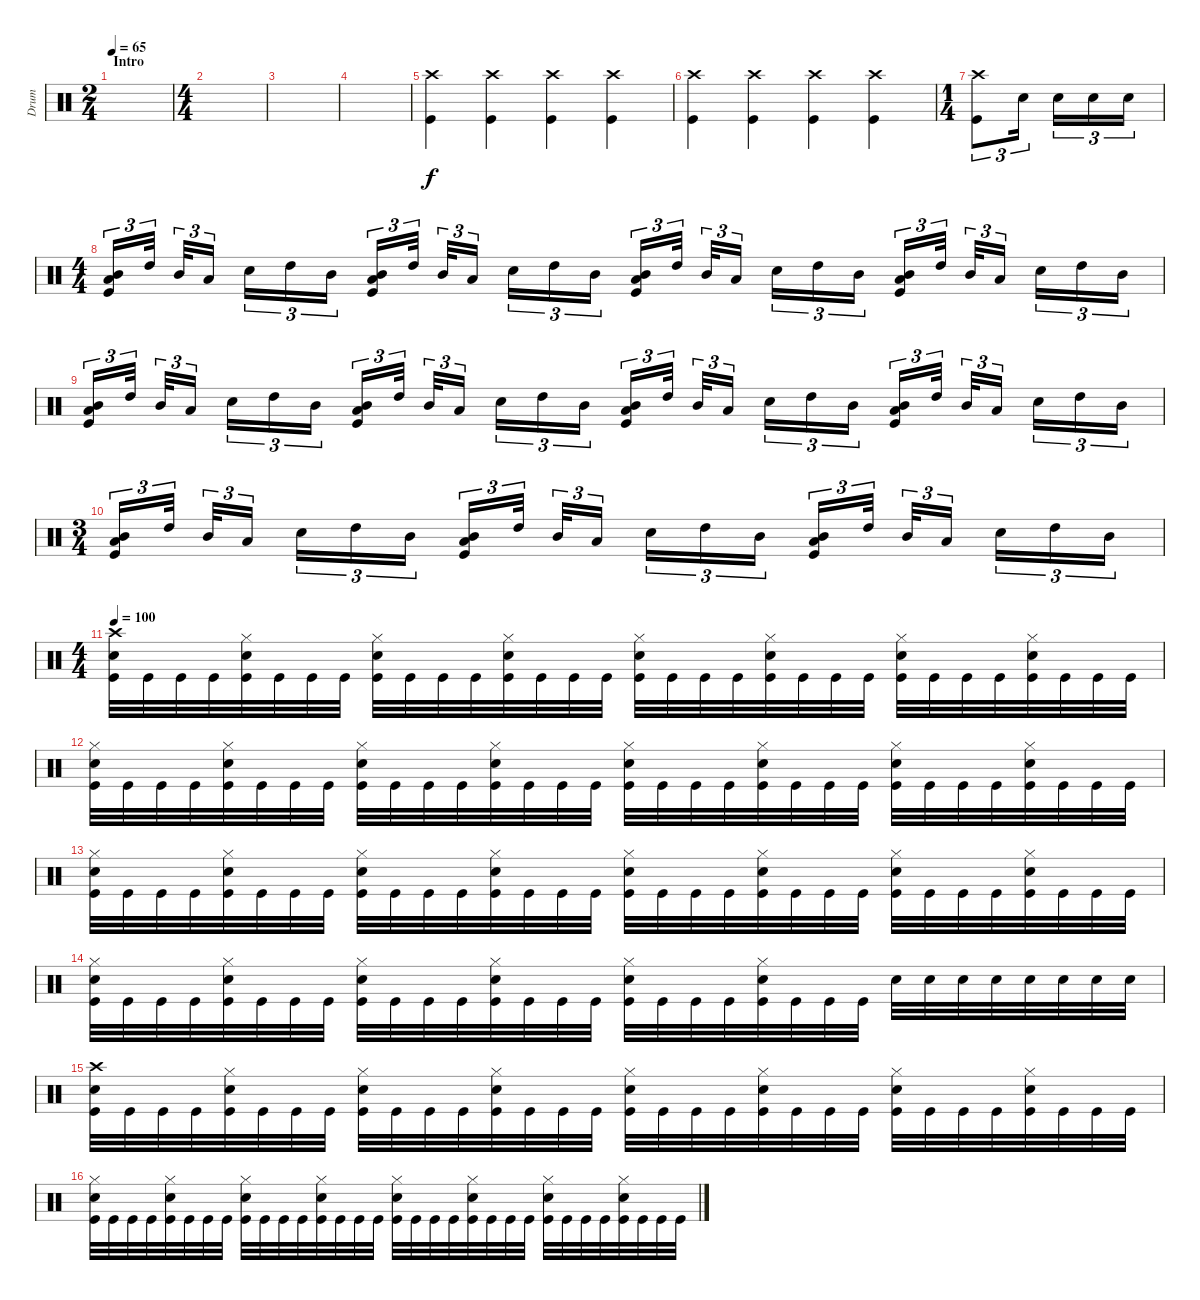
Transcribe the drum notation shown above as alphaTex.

\track ("Drum" "Drum") {instrument percussion}
\staff {score}
\articulation defaults
\ts (2 4)
\section ("" "Intro")
\tempo 65
\clef neutral
\ks c
|
\ts (4 4)
|
|
|
("Kick (hit)" "Crash high (hit)").4 ("Kick (hit)" "Crash high (hit)").4 ("Kick (hit)" "Crash high (hit)").4 ("Kick (hit)" "Crash high (hit)").4 |
("Kick (hit)" "Crash high (hit)").4 ("Kick (hit)" "Crash high (hit)").4 ("Kick (hit)" "Crash high (hit)").4 ("Kick (hit)" "Crash high (hit)").4 |
\ts (1 4)
("Kick (hit)" "Crash high (hit)").8{tu (3 2)} "Snare (hit) 2".16{tu (3 2)} "Snare (hit) 2".16{tu (3 2)} "Snare (hit) 2".16{tu (3 2)} "Snare (hit) 2".16{tu (3 2)} |
\ts (4 4)
("Kick (hit)" "Mid Tom (hit)" "Low Tom (hit)").16{tu (3 2)} "High Tom (hit)".32{tu (3 2)} "Mid Tom (hit)".32{tu (3 2)} "Low Tom (hit)".16{tu (3 2)} "Snare (hit) 2".16{tu (3 2)} "High Tom (hit)".16{tu (3 2)} "Mid Tom (hit)".16{tu (3 2)} ("Kick (hit)" "Mid Tom (hit)" "Low Tom (hit)").16{tu (3 2)} "High Tom (hit)".32{tu (3 2)} "Mid Tom (hit)".32{tu (3 2)} "Low Tom (hit)".16{tu (3 2)} "Snare (hit) 2".16{tu (3 2)} "High Tom (hit)".16{tu (3 2)} "Mid Tom (hit)".16{tu (3 2)} ("Kick (hit)" "Mid Tom (hit)" "Low Tom (hit)").16{tu (3 2)} "High Tom (hit)".32{tu (3 2)} "Mid Tom (hit)".32{tu (3 2)} "Low Tom (hit)".16{tu (3 2)} "Snare (hit) 2".16{tu (3 2)} "High Tom (hit)".16{tu (3 2)} "Mid Tom (hit)".16{tu (3 2)} ("Kick (hit)" "Mid Tom (hit)" "Low Tom (hit)").16{tu (3 2)} "High Tom (hit)".32{tu (3 2)} "Mid Tom (hit)".32{tu (3 2)} "Low Tom (hit)".16{tu (3 2)} "Snare (hit) 2".16{tu (3 2)} "High Tom (hit)".16{tu (3 2)} "Mid Tom (hit)".16{tu (3 2)} |
("Kick (hit)" "Mid Tom (hit)" "Low Tom (hit)").16{tu (3 2)} "High Tom (hit)".32{tu (3 2)} "Mid Tom (hit)".32{tu (3 2)} "Low Tom (hit)".16{tu (3 2)} "Snare (hit) 2".16{tu (3 2)} "High Tom (hit)".16{tu (3 2)} "Mid Tom (hit)".16{tu (3 2)} ("Kick (hit)" "Mid Tom (hit)" "Low Tom (hit)").16{tu (3 2)} "High Tom (hit)".32{tu (3 2)} "Mid Tom (hit)".32{tu (3 2)} "Low Tom (hit)".16{tu (3 2)} "Snare (hit) 2".16{tu (3 2)} "High Tom (hit)".16{tu (3 2)} "Mid Tom (hit)".16{tu (3 2)} ("Kick (hit)" "Mid Tom (hit)" "Low Tom (hit)").16{tu (3 2)} "High Tom (hit)".32{tu (3 2)} "Mid Tom (hit)".32{tu (3 2)} "Low Tom (hit)".16{tu (3 2)} "Snare (hit) 2".16{tu (3 2)} "High Tom (hit)".16{tu (3 2)} "Mid Tom (hit)".16{tu (3 2)} ("Kick (hit)" "Mid Tom (hit)" "Low Tom (hit)").16{tu (3 2)} "High Tom (hit)".32{tu (3 2)} "Mid Tom (hit)".32{tu (3 2)} "Low Tom (hit)".16{tu (3 2)} "Snare (hit) 2".16{tu (3 2)} "High Tom (hit)".16{tu (3 2)} "Mid Tom (hit)".16{tu (3 2)} |
\ts (3 4)
("Kick (hit)" "Mid Tom (hit)" "Low Tom (hit)").16{tu (3 2)} "High Tom (hit)".32{tu (3 2)} "Mid Tom (hit)".32{tu (3 2)} "Low Tom (hit)".16{tu (3 2)} "Snare (hit) 2".16{tu (3 2)} "High Tom (hit)".16{tu (3 2)} "Mid Tom (hit)".16{tu (3 2)} ("Kick (hit)" "Mid Tom (hit)" "Low Tom (hit)").16{tu (3 2)} "High Tom (hit)".32{tu (3 2)} "Mid Tom (hit)".32{tu (3 2)} "Low Tom (hit)".16{tu (3 2)} "Snare (hit) 2".16{tu (3 2)} "High Tom (hit)".16{tu (3 2)} "Mid Tom (hit)".16{tu (3 2)} ("Kick (hit)" "Mid Tom (hit)" "Low Tom (hit)").16{tu (3 2)} "High Tom (hit)".32{tu (3 2)} "Mid Tom (hit)".32{tu (3 2)} "Low Tom (hit)".16{tu (3 2)} "Snare (hit) 2".16{tu (3 2)} "High Tom (hit)".16{tu (3 2)} "Mid Tom (hit)".16{tu (3 2)} |
\ts (4 4)
\tempo 100
("Kick (hit)" "Snare (hit) 2" "Crash high (hit)").32 "Kick (hit)".32 "Kick (hit)".32 "Kick (hit)".32 ("Kick (hit)" "Snare (hit) 2" "Hi-Hat (closed)").32 "Kick (hit)".32 "Kick (hit)".32 "Kick (hit)".32 ("Snare (hit) 2" "Kick (hit)" "Hi-Hat (closed)").32 "Kick (hit)".32 "Kick (hit)".32 "Kick (hit)".32 ("Kick (hit)" "Hi-Hat (closed)" "Snare (hit) 2").32 "Kick (hit)".32 "Kick (hit)".32 "Kick (hit)".32 ("Kick (hit)" "Snare (hit) 2" "Hi-Hat (closed)").32 "Kick (hit)".32 "Kick (hit)".32 "Kick (hit)".32 ("Snare (hit) 2" "Kick (hit)" "Hi-Hat (closed)").32 "Kick (hit)".32 "Kick (hit)".32 "Kick (hit)".32 ("Kick (hit)" "Snare (hit) 2" "Hi-Hat (closed)").32 "Kick (hit)".32 "Kick (hit)".32 "Kick (hit)".32 ("Kick (hit)" "Snare (hit) 2" "Hi-Hat (closed)").32 "Kick (hit)".32 "Kick (hit)".32 "Kick (hit)".32 |
("Kick (hit)" "Snare (hit) 2" "Hi-Hat (closed)").32 "Kick (hit)".32 "Kick (hit)".32 "Kick (hit)".32 ("Kick (hit)" "Snare (hit) 2" "Hi-Hat (closed)").32 "Kick (hit)".32 "Kick (hit)".32 "Kick (hit)".32 ("Snare (hit) 2" "Kick (hit)" "Hi-Hat (closed)").32 "Kick (hit)".32 "Kick (hit)".32 "Kick (hit)".32 ("Kick (hit)" "Hi-Hat (closed)" "Snare (hit) 2").32 "Kick (hit)".32 "Kick (hit)".32 "Kick (hit)".32 ("Kick (hit)" "Snare (hit) 2" "Hi-Hat (closed)").32 "Kick (hit)".32 "Kick (hit)".32 "Kick (hit)".32 ("Snare (hit) 2" "Kick (hit)" "Hi-Hat (closed)").32 "Kick (hit)".32 "Kick (hit)".32 "Kick (hit)".32 ("Kick (hit)" "Snare (hit) 2" "Hi-Hat (closed)").32 "Kick (hit)".32 "Kick (hit)".32 "Kick (hit)".32 ("Kick (hit)" "Snare (hit) 2" "Hi-Hat (closed)").32 "Kick (hit)".32 "Kick (hit)".32 "Kick (hit)".32 |
("Kick (hit)" "Snare (hit) 2" "Hi-Hat (closed)").32 "Kick (hit)".32 "Kick (hit)".32 "Kick (hit)".32 ("Kick (hit)" "Snare (hit) 2" "Hi-Hat (closed)").32 "Kick (hit)".32 "Kick (hit)".32 "Kick (hit)".32 ("Snare (hit) 2" "Kick (hit)" "Hi-Hat (closed)").32 "Kick (hit)".32 "Kick (hit)".32 "Kick (hit)".32 ("Kick (hit)" "Hi-Hat (closed)" "Snare (hit) 2").32 "Kick (hit)".32 "Kick (hit)".32 "Kick (hit)".32 ("Kick (hit)" "Snare (hit) 2" "Hi-Hat (closed)").32 "Kick (hit)".32 "Kick (hit)".32 "Kick (hit)".32 ("Snare (hit) 2" "Kick (hit)" "Hi-Hat (closed)").32 "Kick (hit)".32 "Kick (hit)".32 "Kick (hit)".32 ("Kick (hit)" "Snare (hit) 2" "Hi-Hat (closed)").32 "Kick (hit)".32 "Kick (hit)".32 "Kick (hit)".32 ("Kick (hit)" "Snare (hit) 2" "Hi-Hat (closed)").32 "Kick (hit)".32 "Kick (hit)".32 "Kick (hit)".32 |
("Kick (hit)" "Snare (hit) 2" "Hi-Hat (closed)").32 "Kick (hit)".32 "Kick (hit)".32 "Kick (hit)".32 ("Kick (hit)" "Snare (hit) 2" "Hi-Hat (closed)").32 "Kick (hit)".32 "Kick (hit)".32 "Kick (hit)".32 ("Snare (hit) 2" "Kick (hit)" "Hi-Hat (closed)").32 "Kick (hit)".32 "Kick (hit)".32 "Kick (hit)".32 ("Kick (hit)" "Hi-Hat (closed)" "Snare (hit) 2").32 "Kick (hit)".32 "Kick (hit)".32 "Kick (hit)".32 ("Kick (hit)" "Snare (hit) 2" "Hi-Hat (closed)").32 "Kick (hit)".32 "Kick (hit)".32 "Kick (hit)".32 ("Snare (hit) 2" "Kick (hit)" "Hi-Hat (closed)").32 "Kick (hit)".32 "Kick (hit)".32 "Kick (hit)".32 "Snare (hit) 2".32 "Snare (hit) 2".32 "Snare (hit) 2".32 "Snare (hit) 2".32 "Snare (hit) 2".32 "Snare (hit) 2".32 "Snare (hit) 2".32 "Snare (hit) 2".32 |
("Kick (hit)" "Snare (hit) 2" "Crash high (hit)").32 "Kick (hit)".32 "Kick (hit)".32 "Kick (hit)".32 ("Kick (hit)" "Snare (hit) 2" "Hi-Hat (closed)").32 "Kick (hit)".32 "Kick (hit)".32 "Kick (hit)".32 ("Snare (hit) 2" "Kick (hit)" "Hi-Hat (closed)").32 "Kick (hit)".32 "Kick (hit)".32 "Kick (hit)".32 ("Kick (hit)" "Hi-Hat (closed)" "Snare (hit) 2").32 "Kick (hit)".32 "Kick (hit)".32 "Kick (hit)".32 ("Kick (hit)" "Snare (hit) 2" "Hi-Hat (closed)").32 "Kick (hit)".32 "Kick (hit)".32 "Kick (hit)".32 ("Snare (hit) 2" "Kick (hit)" "Hi-Hat (closed)").32 "Kick (hit)".32 "Kick (hit)".32 "Kick (hit)".32 ("Kick (hit)" "Snare (hit) 2" "Hi-Hat (closed)").32 "Kick (hit)".32 "Kick (hit)".32 "Kick (hit)".32 ("Kick (hit)" "Snare (hit) 2" "Hi-Hat (closed)").32 "Kick (hit)".32 "Kick (hit)".32 "Kick (hit)".32 |
("Kick (hit)" "Snare (hit) 2" "Hi-Hat (closed)").32 "Kick (hit)".32 "Kick (hit)".32 "Kick (hit)".32 ("Kick (hit)" "Snare (hit) 2" "Hi-Hat (closed)").32 "Kick (hit)".32 "Kick (hit)".32 "Kick (hit)".32 ("Snare (hit) 2" "Kick (hit)" "Hi-Hat (closed)").32 "Kick (hit)".32 "Kick (hit)".32 "Kick (hit)".32 ("Kick (hit)" "Hi-Hat (closed)" "Snare (hit) 2").32 "Kick (hit)".32 "Kick (hit)".32 "Kick (hit)".32 ("Kick (hit)" "Snare (hit) 2" "Hi-Hat (closed)").32 "Kick (hit)".32 "Kick (hit)".32 "Kick (hit)".32 ("Snare (hit) 2" "Kick (hit)" "Hi-Hat (closed)").32 "Kick (hit)".32 "Kick (hit)".32 "Kick (hit)".32 ("Kick (hit)" "Snare (hit) 2" "Hi-Hat (closed)").32 "Kick (hit)".32 "Kick (hit)".32 "Kick (hit)".32 ("Kick (hit)" "Snare (hit) 2" "Hi-Hat (closed)").32 "Kick (hit)".32 "Kick (hit)".32 "Kick (hit)".32
